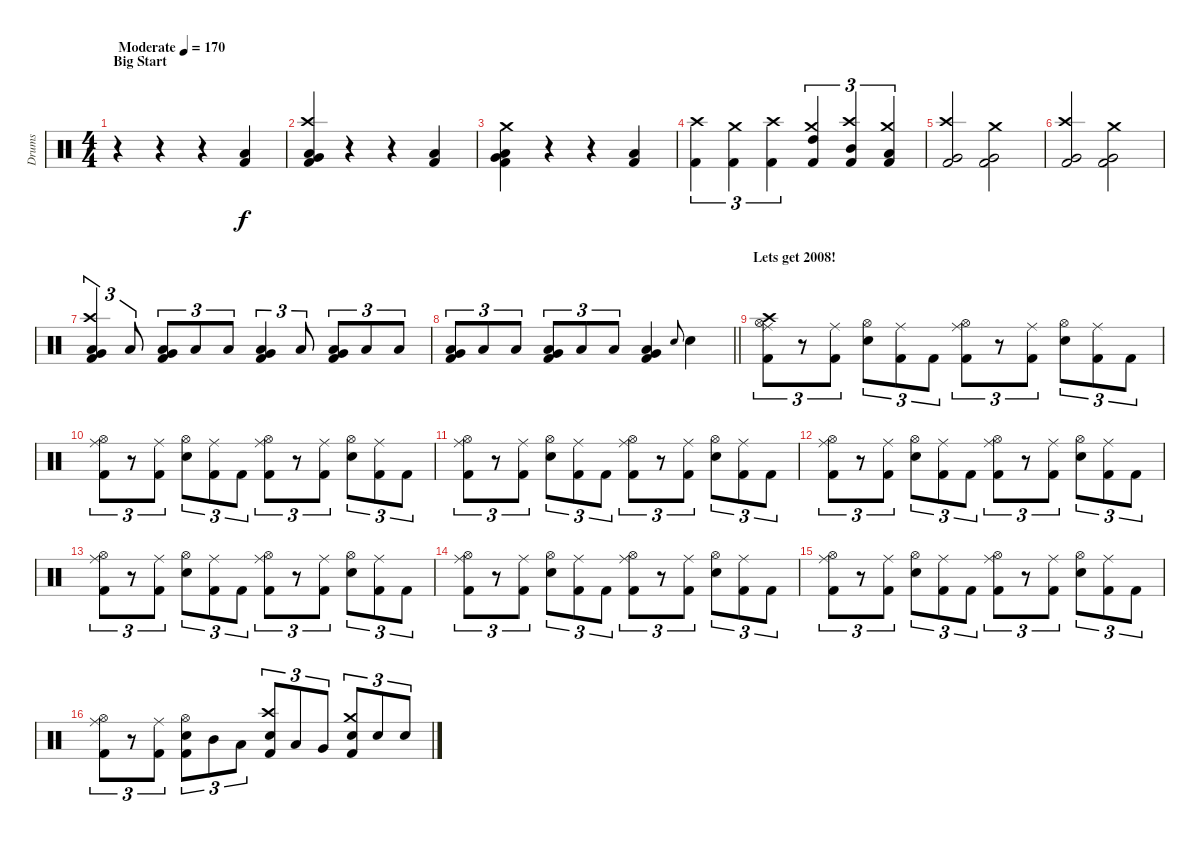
\track ("Drums" "Drums") {instrument percussion}
\staff {score}
\articulation defaults
\ts (4 4)
\section ("" "Big Start")
\tempo (170 "Moderate")
\clef neutral
\ks c
r.4{dy f} r.4 r.4 ("Low Floor Tom (hit)" "Kick (hit) 2").4 |
("Crash high (hit)" "Very Low Tom (hit)" "Low Floor Tom (hit)" "Kick (hit) 2").4 r.4 r.4 ("Low Floor Tom (hit)" "Kick (hit) 2").4 |
("Crash medium (hit)" "Very Low Tom (hit)" "Low Floor Tom (hit)" "Kick (hit) 2").4 r.4 r.4 ("Low Floor Tom (hit)" "Kick (hit) 2").4 |
("Crash high (hit)" "Kick (hit) 2").4{tu (3 2)} ("Crash medium (hit)" "Kick (hit) 2").4{tu (3 2)} ("Crash high (hit)" "Kick (hit) 2").4{tu (3 2)} ("Crash medium (hit)" "High Tom (hit)" "Kick (hit) 2").4{tu (3 2)} ("Crash high (hit)" "Mid Tom (hit)" "Kick (hit) 2").4{tu (3 2)} ("Crash medium (hit)" "Low Tom (hit)" "Kick (hit) 2").4{tu (3 2)} |
("Crash high (hit)" "Very Low Tom (hit)" "Kick (hit) 2").2 ("Crash medium (hit)" "Very Low Tom (hit)" "Kick (hit) 2").2 |
("Crash high (hit)" "Very Low Tom (hit)" "Kick (hit) 2").2 ("Crash medium (hit)" "Very Low Tom (hit)" "Kick (hit) 2").2 |
("Crash high (hit)" "Very Low Tom (hit)" "Low Floor Tom (hit)" "Kick (hit) 2").4{tu (3 2)} "Low Floor Tom (hit)".8{tu (3 2)} ("Very Low Tom (hit)" "Low Floor Tom (hit)" "Kick (hit) 2").8{tu (3 2)} "Low Floor Tom (hit)".8{tu (3 2)} "Low Floor Tom (hit)".8{tu (3 2)} ("Very Low Tom (hit)" "Low Floor Tom (hit)" "Kick (hit) 2").4{tu (3 2)} "Low Floor Tom (hit)".8{tu (3 2)} ("Very Low Tom (hit)" "Low Floor Tom (hit)" "Kick (hit) 2").8{tu (3 2)} "Low Floor Tom (hit)".8{tu (3 2)} "Low Floor Tom (hit)".8{tu (3 2)} |
\barLineRight lightlight
("Very Low Tom (hit)" "Low Floor Tom (hit)" "Kick (hit) 2").8{tu (3 2)} "Low Floor Tom (hit)".8{tu (3 2)} "Low Floor Tom (hit)".8{tu (3 2)} ("Very Low Tom (hit)" "Low Floor Tom (hit)" "Kick (hit) 2").8{tu (3 2)} "Low Floor Tom (hit)".8{tu (3 2)} "Low Floor Tom (hit)".8{tu (3 2)} ("Very Low Tom (hit)" "Low Floor Tom (hit)" "Kick (hit) 2").4 "Snare (hit) 2".8{gr onbeat} "Snare (hit) 2".4 |
\section ("" "Lets get 2008!")
("Crash high (hit)" "Ride (middle)" "Hi-Hat (open)" "Kick (hit) 2").8{tu (3 2)} r.8{tu (3 2)} ("Ride (middle)" "Kick (hit) 2").8{tu (3 2)} ("Hi-Hat (open)" "Snare (hit) 2").8{tu (3 2)} ("Ride (middle)" "Kick (hit) 2").8{tu (3 2)} "Kick (hit) 2".8{tu (3 2)} ("Ride (middle)" "Hi-Hat (open)" "Kick (hit) 2").8{tu (3 2)} r.8{tu (3 2)} ("Ride (middle)" "Kick (hit) 2").8{tu (3 2)} ("Hi-Hat (open)" "Snare (hit) 2").8{tu (3 2)} ("Ride (middle)" "Kick (hit) 2").8{tu (3 2)} "Kick (hit) 2".8{tu (3 2)} |
("Ride (middle)" "Hi-Hat (open)" "Kick (hit) 2").8{tu (3 2)} r.8{tu (3 2)} ("Ride (middle)" "Kick (hit) 2").8{tu (3 2)} ("Hi-Hat (open)" "Snare (hit) 2").8{tu (3 2)} ("Ride (middle)" "Kick (hit) 2").8{tu (3 2)} "Kick (hit) 2".8{tu (3 2)} ("Ride (middle)" "Hi-Hat (open)" "Kick (hit) 2").8{tu (3 2)} r.8{tu (3 2)} ("Ride (middle)" "Kick (hit) 2").8{tu (3 2)} ("Hi-Hat (open)" "Snare (hit) 2").8{tu (3 2)} ("Ride (middle)" "Kick (hit) 2").8{tu (3 2)} "Kick (hit) 2".8{tu (3 2)} |
("Ride (middle)" "Hi-Hat (open)" "Kick (hit) 2").8{tu (3 2)} r.8{tu (3 2)} ("Ride (middle)" "Kick (hit) 2").8{tu (3 2)} ("Hi-Hat (open)" "Snare (hit) 2").8{tu (3 2)} ("Ride (middle)" "Kick (hit) 2").8{tu (3 2)} "Kick (hit) 2".8{tu (3 2)} ("Ride (middle)" "Hi-Hat (open)" "Kick (hit) 2").8{tu (3 2)} r.8{tu (3 2)} ("Ride (middle)" "Kick (hit) 2").8{tu (3 2)} ("Hi-Hat (open)" "Snare (hit) 2").8{tu (3 2)} ("Ride (middle)" "Kick (hit) 2").8{tu (3 2)} "Kick (hit) 2".8{tu (3 2)} |
("Ride (middle)" "Hi-Hat (open)" "Kick (hit) 2").8{tu (3 2)} r.8{tu (3 2)} ("Ride (middle)" "Kick (hit) 2").8{tu (3 2)} ("Hi-Hat (open)" "Snare (hit) 2").8{tu (3 2)} ("Ride (middle)" "Kick (hit) 2").8{tu (3 2)} "Kick (hit) 2".8{tu (3 2)} ("Ride (middle)" "Hi-Hat (open)" "Kick (hit) 2").8{tu (3 2)} r.8{tu (3 2)} ("Ride (middle)" "Kick (hit) 2").8{tu (3 2)} ("Hi-Hat (open)" "Snare (hit) 2").8{tu (3 2)} ("Ride (middle)" "Kick (hit) 2").8{tu (3 2)} "Kick (hit) 2".8{tu (3 2)} |
("Ride (middle)" "Hi-Hat (open)" "Kick (hit) 2").8{tu (3 2)} r.8{tu (3 2)} ("Ride (middle)" "Kick (hit) 2").8{tu (3 2)} ("Hi-Hat (open)" "Snare (hit) 2").8{tu (3 2)} ("Ride (middle)" "Kick (hit) 2").8{tu (3 2)} "Kick (hit) 2".8{tu (3 2)} ("Ride (middle)" "Hi-Hat (open)" "Kick (hit) 2").8{tu (3 2)} r.8{tu (3 2)} ("Ride (middle)" "Kick (hit) 2").8{tu (3 2)} ("Hi-Hat (open)" "Snare (hit) 2").8{tu (3 2)} ("Ride (middle)" "Kick (hit) 2").8{tu (3 2)} "Kick (hit) 2".8{tu (3 2)} |
("Ride (middle)" "Hi-Hat (open)" "Kick (hit) 2").8{tu (3 2)} r.8{tu (3 2)} ("Ride (middle)" "Kick (hit) 2").8{tu (3 2)} ("Hi-Hat (open)" "Snare (hit) 2").8{tu (3 2)} ("Ride (middle)" "Kick (hit) 2").8{tu (3 2)} "Kick (hit) 2".8{tu (3 2)} ("Ride (middle)" "Hi-Hat (open)" "Kick (hit) 2").8{tu (3 2)} r.8{tu (3 2)} ("Ride (middle)" "Kick (hit) 2").8{tu (3 2)} ("Hi-Hat (open)" "Snare (hit) 2").8{tu (3 2)} ("Ride (middle)" "Kick (hit) 2").8{tu (3 2)} "Kick (hit) 2".8{tu (3 2)} |
("Ride (middle)" "Hi-Hat (open)" "Kick (hit) 2").8{tu (3 2)} r.8{tu (3 2)} ("Ride (middle)" "Kick (hit) 2").8{tu (3 2)} ("Hi-Hat (open)" "Snare (hit) 2").8{tu (3 2)} ("Ride (middle)" "Kick (hit) 2").8{tu (3 2)} "Kick (hit) 2".8{tu (3 2)} ("Ride (middle)" "Hi-Hat (open)" "Kick (hit) 2").8{tu (3 2)} r.8{tu (3 2)} ("Ride (middle)" "Kick (hit) 2").8{tu (3 2)} ("Hi-Hat (open)" "Snare (hit) 2").8{tu (3 2)} ("Ride (middle)" "Kick (hit) 2").8{tu (3 2)} "Kick (hit) 2".8{tu (3 2)} |
("Ride (middle)" "Hi-Hat (open)" "Kick (hit) 2").8{tu (3 2)} r.8{tu (3 2)} ("Ride (middle)" "Kick (hit) 2").8{tu (3 2)} ("Hi-Hat (open)" "Snare (hit) 2" "Kick (hit) 2").8{tu (3 2)} "Mid Tom (hit)".8{tu (3 2)} "Low Tom (hit)".8{tu (3 2)} ("Crash high (hit)" "Snare (hit) 2" "Kick (hit) 2").8{tu (3 2)} "Low Tom (hit)".8{tu (3 2)} "Very Low Tom (hit)".8{tu (3 2)} ("Crash medium (hit)" "Snare (hit) 2" "Kick (hit) 2").8{tu (3 2)} "Snare (hit) 2".8{tu (3 2)} "Snare (hit) 2".8{tu (3 2)}
